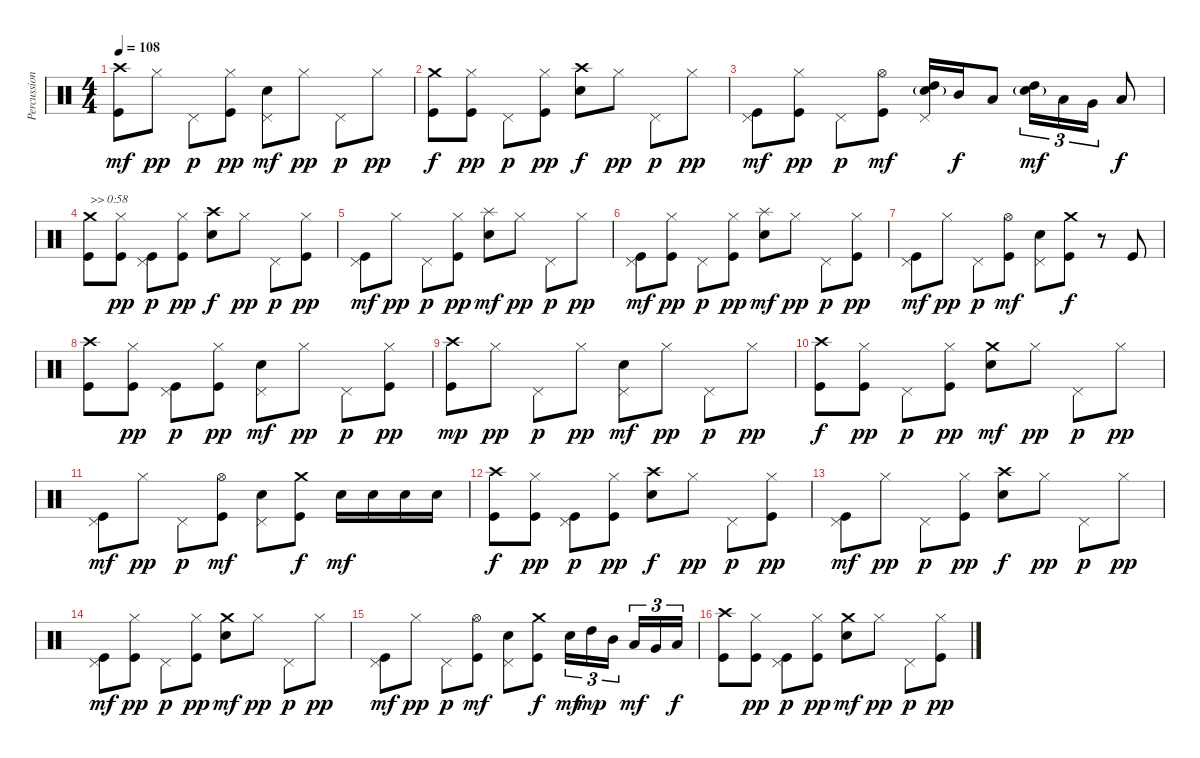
\track ("Percussion" "Percussion") {instrument percussion}
\staff {score}
\articulation defaults
\ts (4 4)
\tempo 108
\clef neutral
\ks c
("Kick (hit)" "Crash high (hit)").8{dy mf} "Hi-Hat (closed)".8{dy pp} "Pedal Hi-Hat (hit)".8{dy p} ("Kick (hit)" "Hi-Hat (closed)").8{dy pp} ("Electric Snare (hit)" "Pedal Hi-Hat (hit)").8{dy mf} "Hi-Hat (closed)".8{dy pp} "Pedal Hi-Hat (hit)".8{dy p} "Hi-Hat (closed)".8{dy pp} |
("Kick (hit)" "Crash medium (hit)").8{dy f} ("Kick (hit)" "Hi-Hat (closed)").8{dy pp} "Pedal Hi-Hat (hit)".8{dy p} ("Kick (hit)" "Hi-Hat (closed)").8{dy pp} ("Electric Snare (hit)" "Crash high (hit)").8{dy f} "Hi-Hat (closed)".8{dy pp} "Pedal Hi-Hat (hit)".8{dy p} "Hi-Hat (closed)".8{dy pp} |
("Kick (hit)" "Pedal Hi-Hat (hit)").8{dy mf} ("Kick (hit)" "Hi-Hat (closed)").8{dy pp} "Pedal Hi-Hat (hit)".8{dy p} ("Kick (hit)" "Hi-Hat (open)").8{dy mf} ("Electric Snare (hit)"{g} "High Tom (hit)" "Pedal Hi-Hat (hit)").16 "Mid Tom (hit)".16{dy f} "Low Tom (hit)".8 ("Electric Snare (hit)"{g} "High Tom (hit)").16{tu (3 2) dy mf} "Low Tom (hit)".16{tu (3 2)} "Very Low Tom (hit)".16{tu (3 2)} "Low Floor Tom (hit)".8{dy f} |
("Kick (hit)" "Crash medium (hit)").8{txt ">> 0:58"} ("Kick (hit)" "Hi-Hat (closed)").8{dy pp} ("Kick (hit)" "Pedal Hi-Hat (hit)").8{dy p} ("Kick (hit)" "Hi-Hat (closed)").8{dy pp} ("Electric Snare (hit)" "Crash high (hit)").8{dy f} "Hi-Hat (closed)".8{dy pp} "Pedal Hi-Hat (hit)".8{dy p} ("Kick (hit)" "Hi-Hat (closed)").8{dy pp} |
("Kick (hit)" "Pedal Hi-Hat (hit)").8{dy mf} "Hi-Hat (closed)".8{dy pp} "Pedal Hi-Hat (hit)".8{dy p} ("Kick (hit)" "Hi-Hat (closed)").8{dy pp} ("Electric Snare (hit)" "Splash (hit)").8{dy mf} "Hi-Hat (closed)".8{dy pp} "Pedal Hi-Hat (hit)".8{dy p} "Hi-Hat (closed)".8{dy pp} |
("Kick (hit)" "Pedal Hi-Hat (hit)").8{dy mf} ("Kick (hit)" "Hi-Hat (closed)").8{dy pp} "Pedal Hi-Hat (hit)".8{dy p} ("Kick (hit)" "Hi-Hat (closed)").8{dy pp} ("Electric Snare (hit)" "Splash (hit)").8{dy mf} "Hi-Hat (closed)".8{dy pp} "Pedal Hi-Hat (hit)".8{dy p} ("Kick (hit)" "Hi-Hat (closed)").8{dy pp} |
("Kick (hit)" "Pedal Hi-Hat (hit)").8{dy mf} "Hi-Hat (closed)".8{dy pp} "Pedal Hi-Hat (hit)".8{dy p} ("Kick (hit)" "Hi-Hat (open)").8{dy mf} ("Electric Snare (hit)" "Pedal Hi-Hat (hit)").8 ("Kick (hit)" "Crash medium (hit)").8{dy f} r.8 "Kick (hit)".8 |
("Kick (hit)" "Crash high (hit)").8 ("Kick (hit)" "Hi-Hat (closed)").8{dy pp} ("Kick (hit)" "Pedal Hi-Hat (hit)").8{dy p} ("Kick (hit)" "Hi-Hat (closed)").8{dy pp} ("Electric Snare (hit)" "Pedal Hi-Hat (hit)").8{dy mf} "Hi-Hat (closed)".8{dy pp} "Pedal Hi-Hat (hit)".8{dy p} ("Kick (hit)" "Hi-Hat (closed)").8{dy pp} |
("Kick (hit)" "Crash high (hit)").8{dy mp} "Hi-Hat (closed)".8{dy pp} "Pedal Hi-Hat (hit)".8{dy p} "Hi-Hat (closed)".8{dy pp} ("Electric Snare (hit)" "Pedal Hi-Hat (hit)").8{dy mf} "Hi-Hat (closed)".8{dy pp} "Pedal Hi-Hat (hit)".8{dy p} "Hi-Hat (closed)".8{dy pp} |
("Kick (hit)" "Crash high (hit)").8{dy f} ("Kick (hit)" "Hi-Hat (closed)").8{dy pp} "Pedal Hi-Hat (hit)".8{dy p} ("Kick (hit)" "Hi-Hat (closed)").8{dy pp} ("Electric Snare (hit)" "Crash medium (hit)").8{dy mf} "Hi-Hat (closed)".8{dy pp} "Pedal Hi-Hat (hit)".8{dy p} "Hi-Hat (closed)".8{dy pp} |
("Kick (hit)" "Pedal Hi-Hat (hit)").8{dy mf} "Hi-Hat (closed)".8{dy pp} "Pedal Hi-Hat (hit)".8{dy p} ("Kick (hit)" "Hi-Hat (open)").8{dy mf} ("Electric Snare (hit)" "Pedal Hi-Hat (hit)").8 ("Kick (hit)" "Crash medium (hit)").8{dy f} "Electric Snare (hit)".16{dy mf} "Electric Snare (hit)".16 "Electric Snare (hit)".16 "Electric Snare (hit)".16 |
("Kick (hit)" "Crash high (hit)").8{dy f} ("Kick (hit)" "Hi-Hat (closed)").8{dy pp} ("Kick (hit)" "Pedal Hi-Hat (hit)").8{dy p} ("Kick (hit)" "Hi-Hat (closed)").8{dy pp} ("Electric Snare (hit)" "Crash high (hit)").8{dy f} "Hi-Hat (closed)".8{dy pp} "Pedal Hi-Hat (hit)".8{dy p} ("Kick (hit)" "Hi-Hat (closed)").8{dy pp} |
("Kick (hit)" "Pedal Hi-Hat (hit)").8{dy mf} "Hi-Hat (closed)".8{dy pp} "Pedal Hi-Hat (hit)".8{dy p} ("Kick (hit)" "Hi-Hat (closed)").8{dy pp} ("Electric Snare (hit)" "Crash high (hit)").8{dy f} "Hi-Hat (closed)".8{dy pp} "Pedal Hi-Hat (hit)".8{dy p} "Hi-Hat (closed)".8{dy pp} |
("Kick (hit)" "Pedal Hi-Hat (hit)").8{dy mf} ("Kick (hit)" "Hi-Hat (closed)").8{dy pp} "Pedal Hi-Hat (hit)".8{dy p} ("Kick (hit)" "Hi-Hat (closed)").8{dy pp} ("Electric Snare (hit)" "Crash medium (hit)").8{dy mf} "Hi-Hat (closed)".8{dy pp} "Pedal Hi-Hat (hit)".8{dy p} "Hi-Hat (closed)".8{dy pp} |
("Kick (hit)" "Pedal Hi-Hat (hit)").8{dy mf} "Hi-Hat (closed)".8{dy pp} "Pedal Hi-Hat (hit)".8{dy p} ("Kick (hit)" "Hi-Hat (open)").8{dy mf} ("Electric Snare (hit)" "Pedal Hi-Hat (hit)").8 ("Kick (hit)" "Crash medium (hit)").8{dy f} "Electric Snare (hit)".16{tu (3 2) dy mf} "High Tom (hit)".16{tu (3 2) dy mp} "Mid Tom (hit)".16{tu (3 2)} "Low Tom (hit)".16{tu (3 2) dy mf} "Very Low Tom (hit)".16{tu (3 2)} "Low Floor Tom (hit)".16{tu (3 2) dy f} |
("Kick (hit)" "Crash high (hit)").8 ("Kick (hit)" "Hi-Hat (closed)").8{dy pp} ("Kick (hit)" "Pedal Hi-Hat (hit)").8{dy p} ("Kick (hit)" "Hi-Hat (closed)").8{dy pp} ("Electric Snare (hit)" "Crash medium (hit)").8{dy mf} "Hi-Hat (closed)".8{dy pp} "Pedal Hi-Hat (hit)".8{dy p} ("Kick (hit)" "Hi-Hat (closed)").8{dy pp}
